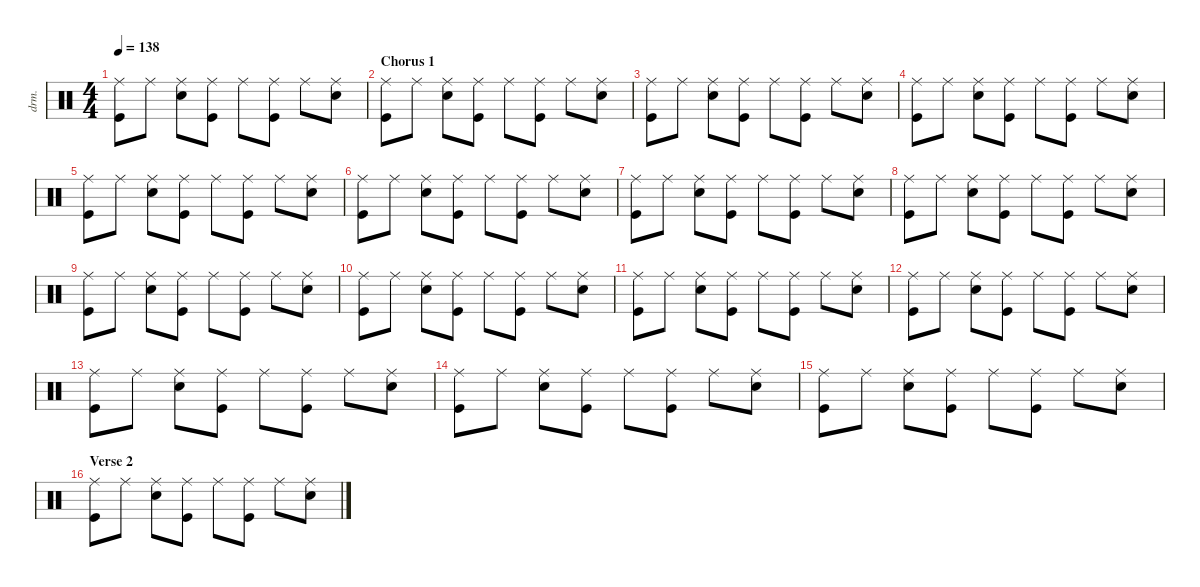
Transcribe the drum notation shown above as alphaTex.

\defaultSystemsLayout 4
\hideDynamics
\bracketExtendMode nobrackets
\otherSystemsTrackNameOrientation horizontal
\track ("Drums" "drm.") {instrument percussion}
\staff {score}
\articulation defaults
\ts (4 4)
\tempo 138
\clef neutral
\ks c
("Ride (middle)" "Kick (hit)").8{dy f beam Down} "Ride (middle)".8{beam Down} ("Ride (middle)" "Snare (hit) 2").8{beam Down} ("Ride (middle)" "Kick (hit)").8{beam Down} "Ride (middle)".8{beam Down} ("Ride (middle)" "Kick (hit)").8{beam Down} "Ride (middle)".8{beam Down} ("Ride (middle)" "Snare (hit) 2").8{beam Down} |
\section ("" "Chorus 1")
("Ride (middle)" "Kick (hit)").8{beam Down} "Ride (middle)".8{beam Down} ("Ride (middle)" "Snare (hit) 2").8{beam Down} ("Ride (middle)" "Kick (hit)").8{beam Down} "Ride (middle)".8{beam Down} ("Ride (middle)" "Kick (hit)").8{beam Down} "Ride (middle)".8{beam Down} ("Ride (middle)" "Snare (hit) 2").8{beam Down} |
("Ride (middle)" "Kick (hit)").8{beam Down} "Ride (middle)".8{beam Down} ("Ride (middle)" "Snare (hit) 2").8{beam Down} ("Ride (middle)" "Kick (hit)").8{beam Down} "Ride (middle)".8{beam Down} ("Ride (middle)" "Kick (hit)").8{beam Down} "Ride (middle)".8{beam Down} ("Ride (middle)" "Snare (hit) 2").8{beam Down} |
("Ride (middle)" "Kick (hit)").8{beam Down} "Ride (middle)".8{beam Down} ("Ride (middle)" "Snare (hit) 2").8{beam Down} ("Ride (middle)" "Kick (hit)").8{beam Down} "Ride (middle)".8{beam Down} ("Ride (middle)" "Kick (hit)").8{beam Down} "Ride (middle)".8{beam Down} ("Ride (middle)" "Snare (hit) 2").8{beam Down} |
("Ride (middle)" "Kick (hit)").8{beam Down} "Ride (middle)".8{beam Down} ("Ride (middle)" "Snare (hit) 2").8{beam Down} ("Ride (middle)" "Kick (hit)").8{beam Down} "Ride (middle)".8{beam Down} ("Ride (middle)" "Kick (hit)").8{beam Down} "Ride (middle)".8{beam Down} ("Ride (middle)" "Snare (hit) 2").8{beam Down} |
("Ride (middle)" "Kick (hit)").8{beam Down} "Ride (middle)".8{beam Down} ("Ride (middle)" "Snare (hit) 2").8{beam Down} ("Ride (middle)" "Kick (hit)").8{beam Down} "Ride (middle)".8{beam Down} ("Ride (middle)" "Kick (hit)").8{beam Down} "Ride (middle)".8{beam Down} ("Ride (middle)" "Snare (hit) 2").8{beam Down} |
("Ride (middle)" "Kick (hit)").8{beam Down} "Ride (middle)".8{beam Down} ("Ride (middle)" "Snare (hit) 2").8{beam Down} ("Ride (middle)" "Kick (hit)").8{beam Down} "Ride (middle)".8{beam Down} ("Ride (middle)" "Kick (hit)").8{beam Down} "Ride (middle)".8{beam Down} ("Ride (middle)" "Snare (hit) 2").8{beam Down} |
("Ride (middle)" "Kick (hit)").8{beam Down} "Ride (middle)".8{beam Down} ("Ride (middle)" "Snare (hit) 2").8{beam Down} ("Ride (middle)" "Kick (hit)").8{beam Down} "Ride (middle)".8{beam Down} ("Ride (middle)" "Kick (hit)").8{beam Down} "Ride (middle)".8{beam Down} ("Ride (middle)" "Snare (hit) 2").8{beam Down} |
("Ride (middle)" "Kick (hit)").8{beam Down} "Ride (middle)".8{beam Down} ("Ride (middle)" "Snare (hit) 2").8{beam Down} ("Ride (middle)" "Kick (hit)").8{beam Down} "Ride (middle)".8{beam Down} ("Ride (middle)" "Kick (hit)").8{beam Down} "Ride (middle)".8{beam Down} ("Ride (middle)" "Snare (hit) 2").8{beam Down} |
("Ride (middle)" "Kick (hit)").8{beam Down} "Ride (middle)".8{beam Down} ("Ride (middle)" "Snare (hit) 2").8{beam Down} ("Ride (middle)" "Kick (hit)").8{beam Down} "Ride (middle)".8{beam Down} ("Ride (middle)" "Kick (hit)").8{beam Down} "Ride (middle)".8{beam Down} ("Ride (middle)" "Snare (hit) 2").8{beam Down} |
("Ride (middle)" "Kick (hit)").8{beam Down} "Ride (middle)".8{beam Down} ("Ride (middle)" "Snare (hit) 2").8{beam Down} ("Ride (middle)" "Kick (hit)").8{beam Down} "Ride (middle)".8{beam Down} ("Ride (middle)" "Kick (hit)").8{beam Down} "Ride (middle)".8{beam Down} ("Ride (middle)" "Snare (hit) 2").8{beam Down} |
("Ride (middle)" "Kick (hit)").8{beam Down} "Ride (middle)".8{beam Down} ("Ride (middle)" "Snare (hit) 2").8{beam Down} ("Ride (middle)" "Kick (hit)").8{beam Down} "Ride (middle)".8{beam Down} ("Ride (middle)" "Kick (hit)").8{beam Down} "Ride (middle)".8{beam Down} ("Ride (middle)" "Snare (hit) 2").8{beam Down} |
("Ride (middle)" "Kick (hit)").8{beam Down} "Ride (middle)".8{beam Down} ("Ride (middle)" "Snare (hit) 2").8{beam Down} ("Ride (middle)" "Kick (hit)").8{beam Down} "Ride (middle)".8{beam Down} ("Ride (middle)" "Kick (hit)").8{beam Down} "Ride (middle)".8{beam Down} ("Ride (middle)" "Snare (hit) 2").8{beam Down} |
("Ride (middle)" "Kick (hit)").8{beam Down} "Ride (middle)".8{beam Down} ("Ride (middle)" "Snare (hit) 2").8{beam Down} ("Ride (middle)" "Kick (hit)").8{beam Down} "Ride (middle)".8{beam Down} ("Ride (middle)" "Kick (hit)").8{beam Down} "Ride (middle)".8{beam Down} ("Ride (middle)" "Snare (hit) 2").8{beam Down} |
("Ride (middle)" "Kick (hit)").8{beam Down} "Ride (middle)".8{beam Down} ("Ride (middle)" "Snare (hit) 2").8{beam Down} ("Ride (middle)" "Kick (hit)").8{beam Down} "Ride (middle)".8{beam Down} ("Ride (middle)" "Kick (hit)").8{beam Down} "Ride (middle)".8{beam Down} ("Ride (middle)" "Snare (hit) 2").8{beam Down} |
\section ("" "Verse 2")
("Ride (middle)" "Kick (hit)").8{beam Down} "Ride (middle)".8{beam Down} ("Ride (middle)" "Snare (hit) 2").8{beam Down} ("Ride (middle)" "Kick (hit)").8{beam Down} "Ride (middle)".8{beam Down} ("Ride (middle)" "Kick (hit)").8{beam Down} "Ride (middle)".8{beam Down} ("Ride (middle)" "Snare (hit) 2").8{beam Down}
